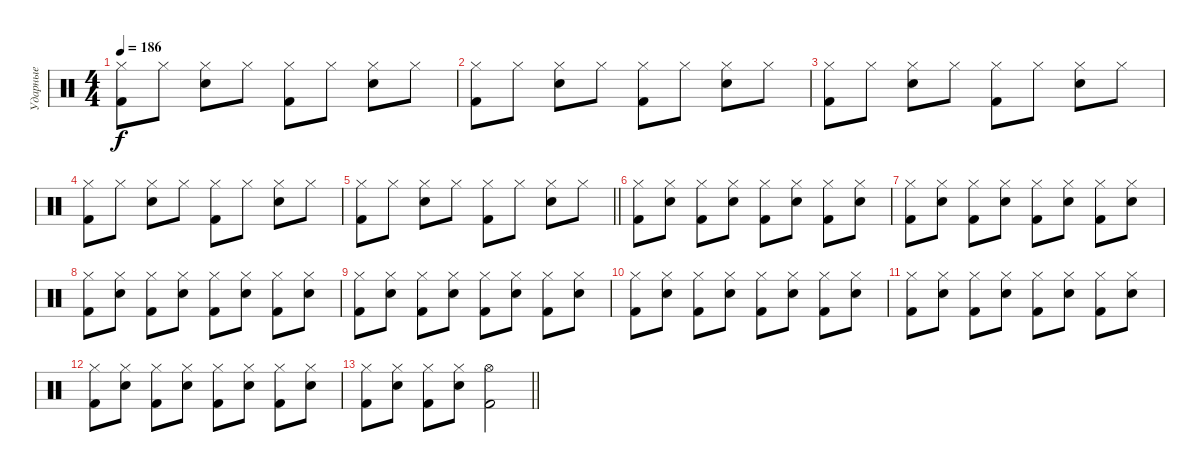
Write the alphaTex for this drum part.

\track ("Ударные" "Ударные") {instrument percussion}
\staff {score}
\articulation defaults
\ts (4 4)
\tempo 186
\clef neutral
\ks c
("Kick (hit) 2" "Hi-Hat (closed)").8{dy f} "Hi-Hat (closed)".8 ("Snare (hit) 2" "Hi-Hat (closed)").8 "Hi-Hat (closed)".8 ("Kick (hit) 2" "Hi-Hat (closed)").8 "Hi-Hat (closed)".8 ("Snare (hit) 2" "Hi-Hat (closed)").8 "Hi-Hat (closed)".8 |
("Kick (hit) 2" "Hi-Hat (closed)").8 "Hi-Hat (closed)".8 ("Snare (hit) 2" "Hi-Hat (closed)").8 "Hi-Hat (closed)".8 ("Kick (hit) 2" "Hi-Hat (closed)").8 "Hi-Hat (closed)".8 ("Snare (hit) 2" "Hi-Hat (closed)").8 "Hi-Hat (closed)".8 |
("Kick (hit) 2" "Hi-Hat (closed)").8 "Hi-Hat (closed)".8 ("Snare (hit) 2" "Hi-Hat (closed)").8 "Hi-Hat (closed)".8 ("Kick (hit) 2" "Hi-Hat (closed)").8 "Hi-Hat (closed)".8 ("Snare (hit) 2" "Hi-Hat (closed)").8 "Hi-Hat (closed)".8 |
("Kick (hit) 2" "Hi-Hat (closed)").8 "Hi-Hat (closed)".8 ("Snare (hit) 2" "Hi-Hat (closed)").8 "Hi-Hat (closed)".8 ("Kick (hit) 2" "Hi-Hat (closed)").8 "Hi-Hat (closed)".8 ("Snare (hit) 2" "Hi-Hat (closed)").8 "Hi-Hat (closed)".8 |
\barLineRight lightlight
("Kick (hit) 2" "Hi-Hat (closed)").8 "Hi-Hat (closed)".8 ("Snare (hit) 2" "Hi-Hat (closed)").8 "Hi-Hat (closed)".8 ("Kick (hit) 2" "Hi-Hat (closed)").8 "Hi-Hat (closed)".8 ("Snare (hit) 2" "Hi-Hat (closed)").8 "Hi-Hat (closed)".8 |
\section ("" "")
("Kick (hit) 2" "Hi-Hat (closed)").8 ("Snare (hit) 2" "Hi-Hat (closed)").8 ("Kick (hit) 2" "Hi-Hat (closed)").8 ("Snare (hit) 2" "Hi-Hat (closed)").8 ("Kick (hit) 2" "Hi-Hat (closed)").8 ("Snare (hit) 2" "Hi-Hat (closed)").8 ("Kick (hit) 2" "Hi-Hat (closed)").8 ("Snare (hit) 2" "Hi-Hat (closed)").8 |
("Kick (hit) 2" "Hi-Hat (closed)").8 ("Snare (hit) 2" "Hi-Hat (closed)").8 ("Kick (hit) 2" "Hi-Hat (closed)").8 ("Snare (hit) 2" "Hi-Hat (closed)").8 ("Kick (hit) 2" "Hi-Hat (closed)").8 ("Snare (hit) 2" "Hi-Hat (closed)").8 ("Kick (hit) 2" "Hi-Hat (closed)").8 ("Snare (hit) 2" "Hi-Hat (closed)").8 |
("Kick (hit) 2" "Hi-Hat (closed)").8 ("Snare (hit) 2" "Hi-Hat (closed)").8 ("Kick (hit) 2" "Hi-Hat (closed)").8 ("Snare (hit) 2" "Hi-Hat (closed)").8 ("Kick (hit) 2" "Hi-Hat (closed)").8 ("Snare (hit) 2" "Hi-Hat (closed)").8 ("Kick (hit) 2" "Hi-Hat (closed)").8 ("Snare (hit) 2" "Hi-Hat (closed)").8 |
("Kick (hit) 2" "Hi-Hat (closed)").8 ("Snare (hit) 2" "Hi-Hat (closed)").8 ("Kick (hit) 2" "Hi-Hat (closed)").8 ("Snare (hit) 2" "Hi-Hat (closed)").8 ("Kick (hit) 2" "Hi-Hat (closed)").8 ("Snare (hit) 2" "Hi-Hat (closed)").8 ("Kick (hit) 2" "Hi-Hat (closed)").8 ("Snare (hit) 2" "Hi-Hat (closed)").8 |
("Kick (hit) 2" "Hi-Hat (closed)").8 ("Snare (hit) 2" "Hi-Hat (closed)").8 ("Kick (hit) 2" "Hi-Hat (closed)").8 ("Snare (hit) 2" "Hi-Hat (closed)").8 ("Kick (hit) 2" "Hi-Hat (closed)").8 ("Snare (hit) 2" "Hi-Hat (closed)").8 ("Kick (hit) 2" "Hi-Hat (closed)").8 ("Snare (hit) 2" "Hi-Hat (closed)").8 |
("Kick (hit) 2" "Hi-Hat (closed)").8 ("Snare (hit) 2" "Hi-Hat (closed)").8 ("Kick (hit) 2" "Hi-Hat (closed)").8 ("Snare (hit) 2" "Hi-Hat (closed)").8 ("Kick (hit) 2" "Hi-Hat (closed)").8 ("Snare (hit) 2" "Hi-Hat (closed)").8 ("Kick (hit) 2" "Hi-Hat (closed)").8 ("Snare (hit) 2" "Hi-Hat (closed)").8 |
("Kick (hit) 2" "Hi-Hat (closed)").8 ("Snare (hit) 2" "Hi-Hat (closed)").8 ("Kick (hit) 2" "Hi-Hat (closed)").8 ("Snare (hit) 2" "Hi-Hat (closed)").8 ("Kick (hit) 2" "Hi-Hat (closed)").8 ("Snare (hit) 2" "Hi-Hat (closed)").8 ("Kick (hit) 2" "Hi-Hat (closed)").8 ("Snare (hit) 2" "Hi-Hat (closed)").8 |
\barLineRight lightlight
("Kick (hit) 2" "Hi-Hat (closed)").8 ("Snare (hit) 2" "Hi-Hat (closed)").8 ("Kick (hit) 2" "Hi-Hat (closed)").8 ("Snare (hit) 2" "Hi-Hat (closed)").8 ("Kick (hit) 2" "Hi-Hat (open)").2
